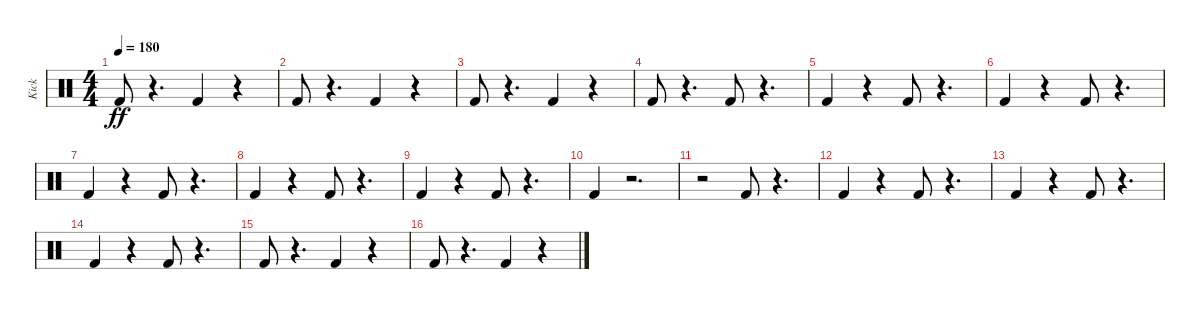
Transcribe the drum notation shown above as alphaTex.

\track ("Kick" "Kick") {instrument percussion}
\staff {score}
\articulation defaults
\ts (4 4)
\tempo 180
\clef neutral
\ks c "Kick (hit) 2".8{dy ff}
r.4{d} "Kick (hit) 2".4 r.4 |
"Kick (hit) 2".8 r.4{d} "Kick (hit) 2".4 r.4 |
"Kick (hit) 2".8 r.4{d} "Kick (hit) 2".4 r.4 |
"Kick (hit) 2".8 r.4{d} "Kick (hit) 2".8 r.4{d} |
"Kick (hit) 2".4 r.4 "Kick (hit) 2".8 r.4{d} |
"Kick (hit) 2".4 r.4 "Kick (hit) 2".8 r.4{d} |
"Kick (hit) 2".4 r.4 "Kick (hit) 2".8 r.4{d} |
"Kick (hit) 2".4 r.4 "Kick (hit) 2".8 r.4{d} |
"Kick (hit) 2".4 r.4 "Kick (hit) 2".8 r.4{d} |
"Kick (hit) 2".4 r.2{d} |
r.2 "Kick (hit) 2".8 r.4{d} |
"Kick (hit) 2".4 r.4 "Kick (hit) 2".8 r.4{d} |
"Kick (hit) 2".4 r.4 "Kick (hit) 2".8 r.4{d} |
"Kick (hit) 2".4 r.4 "Kick (hit) 2".8 r.4{d} |
"Kick (hit) 2".8 r.4{d} "Kick (hit) 2".4 r.4 |
"Kick (hit) 2".8 r.4{d} "Kick (hit) 2".4 r.4
